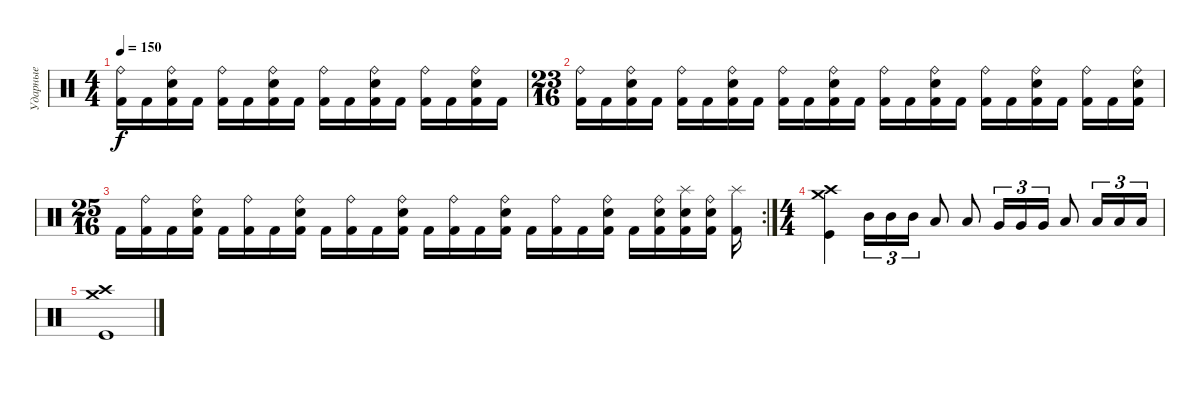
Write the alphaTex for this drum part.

\track ("Ударные" "Ударные") {instrument percussion}
\staff {score}
\articulation defaults
\ts (4 4)
\tempo 150
\clef neutral
\ks c
("Kick (hit) 2" "Ride (bell)").16{dy f} "Kick (hit) 2".16 ("Kick (hit) 2" "Snare (hit) 2" "Ride (bell)").16 "Kick (hit) 2".16 ("Kick (hit) 2" "Ride (bell)").16 "Kick (hit) 2".16 ("Kick (hit) 2" "Snare (hit) 2" "Ride (bell)").16 "Kick (hit) 2".16 ("Kick (hit) 2" "Ride (bell)").16 "Kick (hit) 2".16 ("Kick (hit) 2" "Snare (hit) 2" "Ride (bell)").16 "Kick (hit) 2".16 ("Kick (hit) 2" "Ride (bell)").16 "Kick (hit) 2".16 ("Kick (hit) 2" "Snare (hit) 2" "Ride (bell)").16 "Kick (hit) 2".16 |
\ts (23 16)
("Kick (hit) 2" "Ride (bell)").16 "Kick (hit) 2".16 ("Kick (hit) 2" "Snare (hit) 2" "Ride (bell)").16 "Kick (hit) 2".16 ("Kick (hit) 2" "Ride (bell)").16 "Kick (hit) 2".16 ("Kick (hit) 2" "Snare (hit) 2" "Ride (bell)").16 "Kick (hit) 2".16 ("Kick (hit) 2" "Ride (bell)").16 "Kick (hit) 2".16 ("Kick (hit) 2" "Snare (hit) 2" "Ride (bell)").16 "Kick (hit) 2".16 ("Kick (hit) 2" "Ride (bell)").16 "Kick (hit) 2".16 ("Kick (hit) 2" "Snare (hit) 2" "Ride (bell)").16 "Kick (hit) 2".16 ("Kick (hit) 2" "Ride (bell)").16 "Kick (hit) 2".16 ("Kick (hit) 2" "Snare (hit) 2" "Ride (bell)").16 "Kick (hit) 2".16 ("Kick (hit) 2" "Ride (bell)").16 "Kick (hit) 2".16 ("Kick (hit) 2" "Snare (hit) 2" "Ride (bell)").16 |
\rc 2
\ts (25 16)
"Kick (hit) 2".16 ("Kick (hit) 2" "Ride (bell)").16 "Kick (hit) 2".16 ("Kick (hit) 2" "Snare (hit) 2" "Ride (bell)").16 "Kick (hit) 2".16 ("Kick (hit) 2" "Ride (bell)").16 "Kick (hit) 2".16 ("Kick (hit) 2" "Snare (hit) 2" "Ride (bell)").16 "Kick (hit) 2".16 ("Kick (hit) 2" "Ride (bell)").16 "Kick (hit) 2".16 ("Kick (hit) 2" "Snare (hit) 2" "Ride (bell)").16 "Kick (hit) 2".16 ("Kick (hit) 2" "Ride (bell)").16 "Kick (hit) 2".16 ("Kick (hit) 2" "Snare (hit) 2" "Ride (bell)").16 "Kick (hit) 2".16 ("Kick (hit) 2" "Ride (bell)").16 "Kick (hit) 2".16 ("Kick (hit) 2" "Snare (hit) 2" "Ride (bell)").16 "Kick (hit) 2".16 ("Kick (hit) 2" "Snare (hit) 2" "Ride (bell)").16 ("Kick (hit) 2" "Snare (hit) 2" "Splash (hit)").16 ("Kick (hit) 2" "Snare (hit) 2" "Ride (bell)").16 ("Kick (hit) 2" "Splash (hit)").16 |
\ts (4 4)
("Kick (hit)" "Crash medium (hit)" "Crash high (hit)").4 "Mid Tom (hit)".16{tu (3 2)} "Mid Tom (hit)".16{tu (3 2)} "Mid Tom (hit)".16{tu (3 2)} "Low Tom (hit)".8 "Low Tom (hit)".8 "Very Low Tom (hit)".16{tu (3 2)} "Very Low Tom (hit)".16{tu (3 2)} "Very Low Tom (hit)".16{tu (3 2)} "Low Floor Tom (hit)".8 "Low Floor Tom (hit)".16{tu (3 2)} "Low Floor Tom (hit)".16{tu (3 2)} "Low Floor Tom (hit)".16{tu (3 2)} |
("Kick (hit)" "Crash medium (hit)" "Crash high (hit)").1
